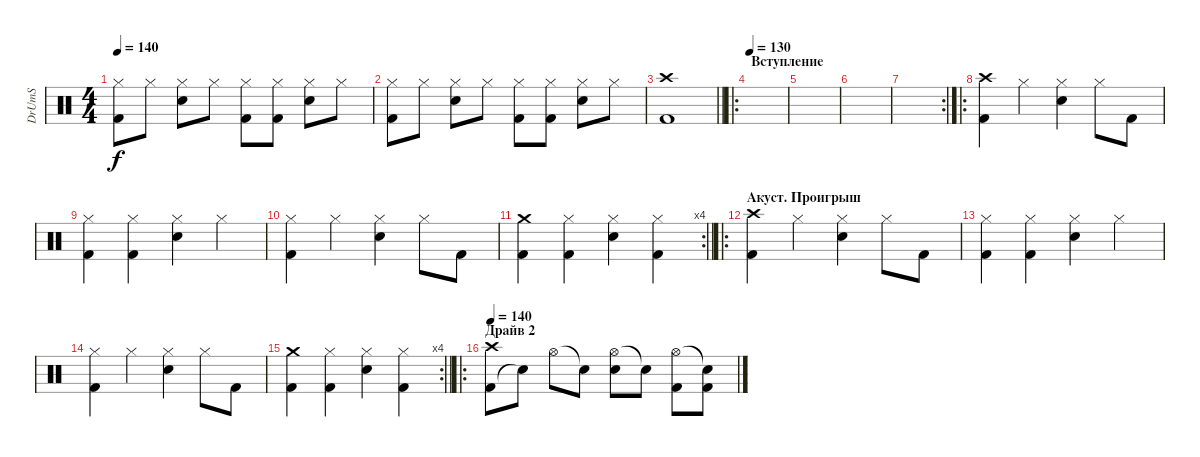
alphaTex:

\track ("DrUmS" "DrUmS") {instrument percussion}
\staff {score}
\articulation defaults
\ts (4 4)
\tempo 140
\clef neutral
\ks c
("Kick (hit) 2" "Hi-Hat (closed)").8{dy f} "Hi-Hat (closed)".8 ("Hi-Hat (closed)" "Snare (hit) 2").8 "Hi-Hat (closed)".8 ("Kick (hit) 2" "Hi-Hat (closed)").8 ("Kick (hit) 2" "Hi-Hat (closed)").8 ("Hi-Hat (closed)" "Snare (hit) 2").8 "Hi-Hat (closed)".8 |
("Kick (hit) 2" "Hi-Hat (closed)").8 "Hi-Hat (closed)".8 ("Hi-Hat (closed)" "Snare (hit) 2").8 "Hi-Hat (closed)".8 ("Kick (hit) 2" "Hi-Hat (closed)").8 ("Kick (hit) 2" "Hi-Hat (closed)").8 ("Hi-Hat (closed)" "Snare (hit) 2").8 "Hi-Hat (closed)".8 |
\barLineRight lightlight
("Kick (hit) 2" "Crash high (hit)").1 |
\ro
\section ("" "Вступление")
\tempo 130
|
|
|
\rc 2
|
\ro
("Kick (hit) 2" "Crash high (hit)").4 "Hi-Hat (closed)".4 ("Hi-Hat (closed)" "Snare (hit) 2").4 "Hi-Hat (closed)".8 "Kick (hit) 2".8 |
("Kick (hit) 2" "Hi-Hat (closed)").4 ("Kick (hit) 2" "Hi-Hat (closed)").4 ("Hi-Hat (closed)" "Snare (hit) 2").4 "Hi-Hat (closed)".4 |
("Kick (hit) 2" "Hi-Hat (closed)").4 "Hi-Hat (closed)".4 ("Hi-Hat (closed)" "Snare (hit) 2").4 "Hi-Hat (closed)".8 "Kick (hit) 2".8 |
\rc 4
\barLineRight lightlight
("Kick (hit) 2" "Crash medium (hit)").4 ("Kick (hit) 2" "Hi-Hat (closed)").4 ("Hi-Hat (closed)" "Snare (hit) 2").4 ("Kick (hit) 2" "Hi-Hat (closed)").4 |
\ro
\section ("" "Акуст. Проигрыш")
("Kick (hit) 2" "Crash high (hit)").4 "Hi-Hat (closed)".4 ("Hi-Hat (closed)" "Snare (hit) 2").4 "Hi-Hat (closed)".8 "Kick (hit) 2".8 |
("Kick (hit) 2" "Hi-Hat (closed)").4 ("Kick (hit) 2" "Hi-Hat (closed)").4 ("Hi-Hat (closed)" "Snare (hit) 2").4 "Hi-Hat (closed)".4 |
("Kick (hit) 2" "Hi-Hat (closed)").4 "Hi-Hat (closed)".4 ("Hi-Hat (closed)" "Snare (hit) 2").4 "Hi-Hat (closed)".8 "Kick (hit) 2".8 |
\rc 4
\barLineRight lightlight
("Kick (hit) 2" "Crash medium (hit)").4 ("Kick (hit) 2" "Hi-Hat (closed)").4 ("Hi-Hat (closed)" "Snare (hit) 2").4 ("Kick (hit) 2" "Hi-Hat (closed)").4 |
\ro
\section ("" "Драйв 2")
\tempo 135
\tempo 140
("Kick (hit) 2" "Crash high (hit)").8 "Snare (hit)"{t}.8 "Hi-Hat (open)".8 "Snare (hit)"{t}.8 ("Hi-Hat (open)" "Snare (hit) 2").8 "Snare (hit)"{t}.8 ("Kick (hit) 2" "Hi-Hat (open)").8 ("Kick (hit) 2" "Snare (hit)"{t}).8
